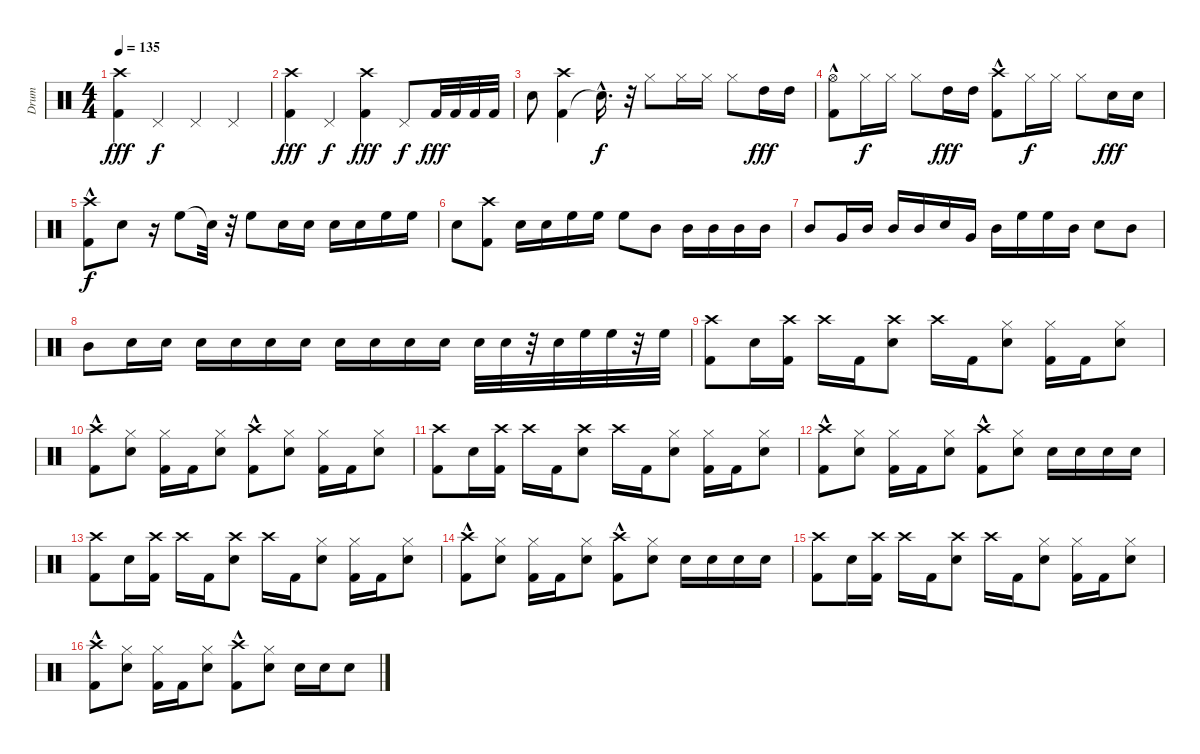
\track ("Drum" "Drum") {instrument percussion}
\staff {score}
\articulation defaults
\ts (4 4)
\tempo 135
\clef neutral
\ks c
("Kick (hit) 2" "Crash high (hit)").4{dy fff} "Pedal Hi-Hat (hit)".4{dy f} "Pedal Hi-Hat (hit)".4 "Pedal Hi-Hat (hit)".4 |
("Kick (hit) 2" "Crash high (hit)").4{dy fff} "Pedal Hi-Hat (hit)".4{dy f} ("Kick (hit) 2" "Crash high (hit)").4{dy fff} "Pedal Hi-Hat (hit)".8{dy f} "Kick (hit) 2".32{dy fff} "Kick (hit) 2".32 "Kick (hit) 2".32 "Kick (hit) 2".32 |
"Snare (hit) 2".8 ("Kick (hit) 2" "Crash high (hit)").4 "Snare (hit)"{hac t}.16{d dy f} r.32 "Hi-Hat (closed)".8 "Hi-Hat (closed)".16 "Hi-Hat (closed)".16 "Hi-Hat (closed)".8 "High Tom (hit)".16{dy fff} "High Tom (hit)".16 |
("Kick (hit) 2"{hac} "Hi-Hat (open)").8 "Hi-Hat (closed)".16{dy f} "Hi-Hat (closed)".16 "Hi-Hat (closed)".8 "High Tom (hit)".16{dy fff} "High Tom (hit)".16 ("Kick (hit) 2"{hac} "Crash high (hit)").8 "Hi-Hat (closed)".16{dy f} "Hi-Hat (closed)".16 "Hi-Hat (closed)".8 "Snare (hit) 2".16{dy fff} "Snare (hit) 2".16 |
("Kick (hit) 2"{hac} "Crash high (hit)").8{dy f} "Snare (hit) 2".8 r.16 "High Floor Tom (hit)".8 "Snare (hit)"{t}.32 r.32 "High Floor Tom (hit)".8 "Snare (hit) 2".16 "Snare (hit) 2".16 "Snare (hit) 2".16 "Snare (hit) 2".16 "High Floor Tom (hit)".16 "High Floor Tom (hit)".16 |
"Snare (hit) 2".8 ("Crash high (hit)" "Kick (hit) 2").8 "Snare (hit) 2".16 "Snare (hit) 2".16 "High Floor Tom (hit)".16 "High Floor Tom (hit)".16 "High Floor Tom (hit)".8 "Mid Tom (hit)".8 "Mid Tom (hit)".16 "Mid Tom (hit)".16 "Mid Tom (hit)".16 "Mid Tom (hit)".16 |
"Mid Tom (hit)".8 "Very Low Tom (hit)".16 "Mid Tom (hit)".16 "Mid Tom (hit)".16 "Mid Tom (hit)".16 "Snare (hit) 2".16 "Very Low Tom (hit)".16 "Mid Tom (hit)".16 "High Floor Tom (hit)".16 "High Floor Tom (hit)".16 "Mid Tom (hit)".16 "Snare (hit) 2".8 "Mid Tom (hit)".8 |
"Mid Tom (hit)".8 "Snare (hit) 2".16 "Snare (hit) 2".16 "Snare (hit) 2".16 "Snare (hit) 2".16 "Snare (hit) 2".16 "Snare (hit) 2".16 "Snare (hit) 2".16 "Snare (hit) 2".16 "Snare (hit) 2".16 "Snare (hit) 2".16 "Snare (hit) 2".32 "Snare (hit) 2".32 r.32 "Snare (hit) 2".32 "High Floor Tom (hit)".32 "High Floor Tom (hit)".32 r.32 "High Floor Tom (hit)".32 |
("Crash high (hit)" "Kick (hit) 2").8 "Snare (hit) 2".16 ("Crash high (hit)" "Kick (hit) 2").16 "Crash high (hit)".16 "Kick (hit) 2".16 ("Crash high (hit)" "Snare (hit) 2").8 "Crash high (hit)".16 "Kick (hit) 2".16 ("Hi-Hat (closed)" "Snare (hit) 2").8 ("Hi-Hat (closed)" "Kick (hit) 2").16 "Kick (hit) 2".16 ("Hi-Hat (closed)" "Snare (hit) 2").8 |
("Crash high (hit)" "Kick (hit) 2"{hac}).8 ("Hi-Hat (closed)" "Snare (hit) 2").8 ("Hi-Hat (closed)" "Kick (hit) 2").16 "Kick (hit) 2".16 ("Hi-Hat (closed)" "Snare (hit) 2").8 ("Crash high (hit)" "Kick (hit) 2"{hac}).8 ("Hi-Hat (closed)" "Snare (hit) 2").8 ("Hi-Hat (closed)" "Kick (hit) 2").16 "Kick (hit) 2".16 ("Hi-Hat (closed)" "Snare (hit) 2").8 |
("Crash high (hit)" "Kick (hit) 2").8 "Snare (hit) 2".16 ("Crash high (hit)" "Kick (hit) 2").16 "Crash high (hit)".16 "Kick (hit) 2".16 ("Crash high (hit)" "Snare (hit) 2").8 "Crash high (hit)".16 "Kick (hit) 2".16 ("Hi-Hat (closed)" "Snare (hit) 2").8 ("Hi-Hat (closed)" "Kick (hit) 2").16 "Kick (hit) 2".16 ("Hi-Hat (closed)" "Snare (hit) 2").8 |
("Crash high (hit)" "Kick (hit) 2"{hac}).8 ("Hi-Hat (closed)" "Snare (hit) 2").8 ("Hi-Hat (closed)" "Kick (hit) 2").16 "Kick (hit) 2".16 ("Hi-Hat (closed)" "Snare (hit) 2").8 ("Crash high (hit)" "Kick (hit) 2"{hac}).8 ("Hi-Hat (closed)" "Snare (hit) 2").8 "Snare (hit) 2".16 "Snare (hit) 2".16 "Snare (hit) 2".16 "Snare (hit) 2".16 |
("Crash high (hit)" "Kick (hit) 2").8 "Snare (hit) 2".16 ("Crash high (hit)" "Kick (hit) 2").16 "Crash high (hit)".16 "Kick (hit) 2".16 ("Crash high (hit)" "Snare (hit) 2").8 "Crash high (hit)".16 "Kick (hit) 2".16 ("Hi-Hat (closed)" "Snare (hit) 2").8 ("Hi-Hat (closed)" "Kick (hit) 2").16 "Kick (hit) 2".16 ("Hi-Hat (closed)" "Snare (hit) 2").8 |
("Crash high (hit)" "Kick (hit) 2"{hac}).8 ("Hi-Hat (closed)" "Snare (hit) 2").8 ("Hi-Hat (closed)" "Kick (hit) 2").16 "Kick (hit) 2".16 ("Hi-Hat (closed)" "Snare (hit) 2").8 ("Crash high (hit)" "Kick (hit) 2"{hac}).8 ("Hi-Hat (closed)" "Snare (hit) 2").8 "Snare (hit) 2".16 "Snare (hit) 2".16 "Snare (hit) 2".16 "Snare (hit) 2".16 |
("Crash high (hit)" "Kick (hit) 2").8 "Snare (hit) 2".16 ("Crash high (hit)" "Kick (hit) 2").16 "Crash high (hit)".16 "Kick (hit) 2".16 ("Crash high (hit)" "Snare (hit) 2").8 "Crash high (hit)".16 "Kick (hit) 2".16 ("Hi-Hat (closed)" "Snare (hit) 2").8 ("Hi-Hat (closed)" "Kick (hit) 2").16 "Kick (hit) 2".16 ("Hi-Hat (closed)" "Snare (hit) 2").8 |
("Crash high (hit)" "Kick (hit) 2"{hac}).8 ("Hi-Hat (closed)" "Snare (hit) 2").8 ("Hi-Hat (closed)" "Kick (hit) 2").16 "Kick (hit) 2".16 ("Hi-Hat (closed)" "Snare (hit) 2").8 ("Crash high (hit)" "Kick (hit) 2"{hac}).8 ("Hi-Hat (closed)" "Snare (hit) 2").8 "Snare (hit) 2".16 "Snare (hit) 2".16 "Snare (hit) 2".8
